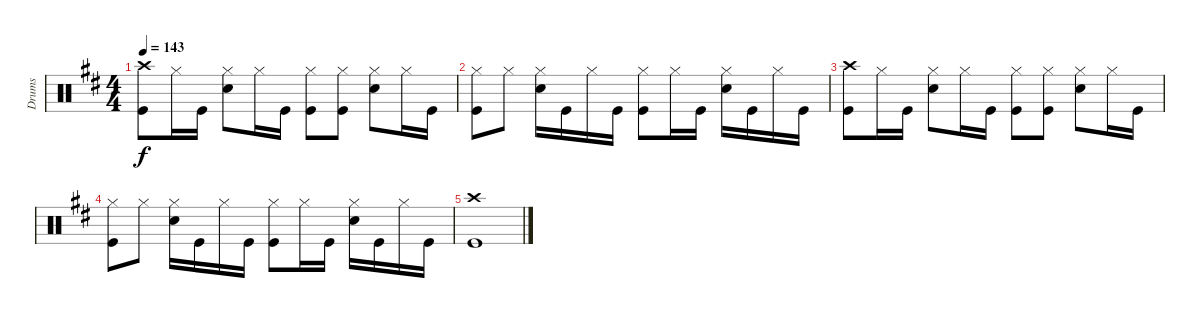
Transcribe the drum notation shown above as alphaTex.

\track ("Drums" "Drums") {instrument percussion}
\staff {score}
\articulation defaults
\ts (4 4)
\tempo 143
\clef neutral
\ks bminor
("Crash high (hit)" "Kick (hit)").8{dy f} "Hi-Hat (closed)".16 "Kick (hit)".16 ("Hi-Hat (closed)" "Snare (hit) 2").8 "Hi-Hat (closed)".16 "Kick (hit)".16 ("Hi-Hat (closed)" "Kick (hit)").8 ("Hi-Hat (closed)" "Kick (hit)").8 ("Hi-Hat (closed)" "Snare (hit) 2").8 "Hi-Hat (closed)".16 "Kick (hit)".16 |
("Hi-Hat (closed)" "Kick (hit)").8 "Hi-Hat (closed)".8 ("Hi-Hat (closed)" "Snare (hit) 2").16 "Kick (hit)".16 "Hi-Hat (closed)".16 "Kick (hit)".16 ("Hi-Hat (closed)" "Kick (hit)").8 "Hi-Hat (closed)".16 "Kick (hit)".16 ("Hi-Hat (closed)" "Snare (hit) 2").16 "Kick (hit)".16 "Hi-Hat (closed)".16 "Kick (hit)".16 |
("Crash high (hit)" "Kick (hit)").8 "Hi-Hat (closed)".16 "Kick (hit)".16 ("Hi-Hat (closed)" "Snare (hit) 2").8 "Hi-Hat (closed)".16 "Kick (hit)".16 ("Hi-Hat (closed)" "Kick (hit)").8 ("Hi-Hat (closed)" "Kick (hit)").8 ("Hi-Hat (closed)" "Snare (hit) 2").8 "Hi-Hat (closed)".16 "Kick (hit)".16 |
("Hi-Hat (closed)" "Kick (hit)").8 "Hi-Hat (closed)".8 ("Hi-Hat (closed)" "Snare (hit) 2").16 "Kick (hit)".16 "Hi-Hat (closed)".16 "Kick (hit)".16 ("Hi-Hat (closed)" "Kick (hit)").8 "Hi-Hat (closed)".16 "Kick (hit)".16 ("Hi-Hat (closed)" "Snare (hit) 2").16 "Kick (hit)".16 "Hi-Hat (closed)".16 "Kick (hit)".16 |
("Crash high (hit)" "Kick (hit)").1
